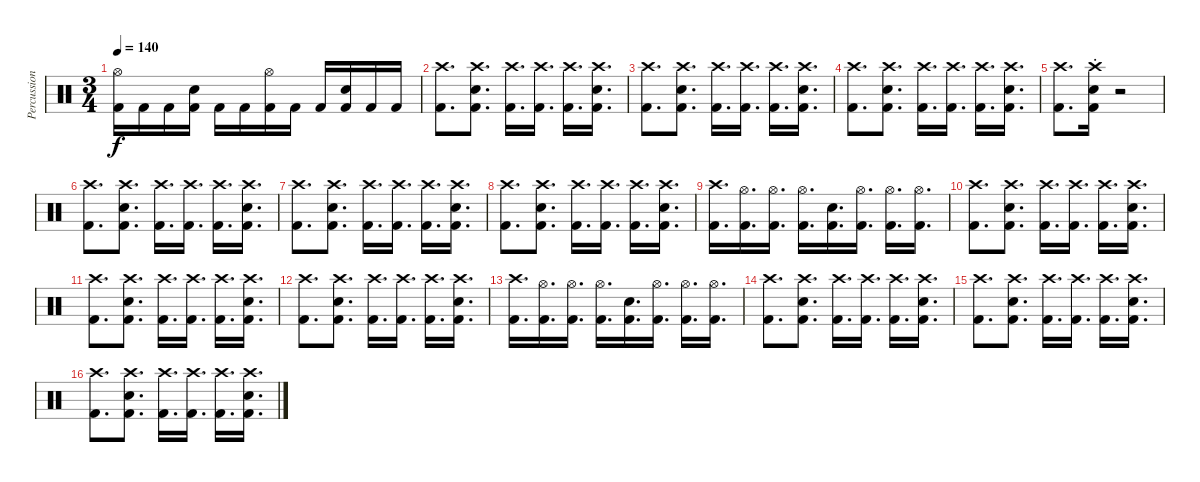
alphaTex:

\track ("Percussion" "Percussion") {instrument percussion}
\staff {score}
\articulation defaults
\ts (3 4)
\tempo 140
\clef neutral
\ks c
("Hi-Hat (open)" "Kick (hit) 2").16{dy f} "Kick (hit) 2".16 "Kick (hit) 2".16 ("Electric Snare (hit)" "Kick (hit) 2").16 "Kick (hit) 2".16 "Kick (hit) 2".16 ("Hi-Hat (open)" "Kick (hit) 2").16 "Kick (hit) 2".16 "Kick (hit) 2".16 ("Electric Snare (hit)" "Kick (hit) 2").16 "Kick (hit) 2".16 "Kick (hit) 2".16 |
("Crash high (hit)" "Kick (hit) 2").8{d} ("Crash high (hit)" "Electric Snare (hit)" "Kick (hit) 2").8{d} ("Crash high (hit)" "Kick (hit) 2").16{d} ("Crash high (hit)" "Kick (hit) 2").16{d} ("Crash high (hit)" "Kick (hit) 2").16{d} ("Crash high (hit)" "Electric Snare (hit)" "Kick (hit) 2").16{d} |
("Crash high (hit)" "Kick (hit) 2").8{d} ("Crash high (hit)" "Electric Snare (hit)" "Kick (hit) 2").8{d} ("Crash high (hit)" "Kick (hit) 2").16{d} ("Crash high (hit)" "Kick (hit) 2").16{d} ("Crash high (hit)" "Kick (hit) 2").16{d} ("Crash high (hit)" "Electric Snare (hit)" "Kick (hit) 2").16{d} |
("Crash high (hit)" "Kick (hit) 2").8{d} ("Crash high (hit)" "Electric Snare (hit)" "Kick (hit) 2").8{d} ("Crash high (hit)" "Kick (hit) 2").16{d} ("Crash high (hit)" "Kick (hit) 2").16{d} ("Crash high (hit)" "Kick (hit) 2").16{d} ("Crash high (hit)" "Electric Snare (hit)" "Kick (hit) 2").16{d} |
("Crash high (hit)" "Kick (hit) 2").8{d} ("Crash high (hit)"{st} "Electric Snare (hit)"{st} "Kick (hit) 2"{st}).16 r.2 |
("Crash high (hit)" "Kick (hit) 2").8{d} ("Crash high (hit)" "Electric Snare (hit)" "Kick (hit) 2").8{d} ("Crash high (hit)" "Kick (hit) 2").16{d} ("Crash high (hit)" "Kick (hit) 2").16{d} ("Crash high (hit)" "Kick (hit) 2").16{d} ("Crash high (hit)" "Electric Snare (hit)" "Kick (hit) 2").16{d} |
("Crash high (hit)" "Kick (hit) 2").8{d} ("Crash high (hit)" "Electric Snare (hit)" "Kick (hit) 2").8{d} ("Crash high (hit)" "Kick (hit) 2").16{d} ("Crash high (hit)" "Kick (hit) 2").16{d} ("Crash high (hit)" "Kick (hit) 2").16{d} ("Crash high (hit)" "Electric Snare (hit)" "Kick (hit) 2").16{d} |
("Crash high (hit)" "Kick (hit) 2").8{d} ("Crash high (hit)" "Electric Snare (hit)" "Kick (hit) 2").8{d} ("Crash high (hit)" "Kick (hit) 2").16{d} ("Crash high (hit)" "Kick (hit) 2").16{d} ("Crash high (hit)" "Kick (hit) 2").16{d} ("Crash high (hit)" "Electric Snare (hit)" "Kick (hit) 2").16{d} |
("Crash high (hit)" "Kick (hit) 2").16{d} ("Hi-Hat (open)" "Kick (hit) 2").16{d} ("Hi-Hat (open)" "Kick (hit) 2").16{d} ("Hi-Hat (open)" "Kick (hit) 2").16{d} ("Electric Snare (hit)" "Kick (hit) 2").16{d} ("Hi-Hat (open)" "Kick (hit) 2").16{d} ("Hi-Hat (open)" "Kick (hit) 2").16{d} ("Hi-Hat (open)" "Kick (hit) 2").16{d} |
("Crash high (hit)" "Kick (hit) 2").8{d} ("Crash high (hit)" "Electric Snare (hit)" "Kick (hit) 2").8{d} ("Crash high (hit)" "Kick (hit) 2").16{d} ("Crash high (hit)" "Kick (hit) 2").16{d} ("Crash high (hit)" "Kick (hit) 2").16{d} ("Crash high (hit)" "Electric Snare (hit)" "Kick (hit) 2").16{d} |
("Crash high (hit)" "Kick (hit) 2").8{d} ("Crash high (hit)" "Electric Snare (hit)" "Kick (hit) 2").8{d} ("Crash high (hit)" "Kick (hit) 2").16{d} ("Crash high (hit)" "Kick (hit) 2").16{d} ("Crash high (hit)" "Kick (hit) 2").16{d} ("Crash high (hit)" "Electric Snare (hit)" "Kick (hit) 2").16{d} |
("Crash high (hit)" "Kick (hit) 2").8{d} ("Crash high (hit)" "Electric Snare (hit)" "Kick (hit) 2").8{d} ("Crash high (hit)" "Kick (hit) 2").16{d} ("Crash high (hit)" "Kick (hit) 2").16{d} ("Crash high (hit)" "Kick (hit) 2").16{d} ("Crash high (hit)" "Electric Snare (hit)" "Kick (hit) 2").16{d} |
("Crash high (hit)" "Kick (hit) 2").16{d} ("Hi-Hat (open)" "Kick (hit) 2").16{d} ("Hi-Hat (open)" "Kick (hit) 2").16{d} ("Hi-Hat (open)" "Kick (hit) 2").16{d} ("Electric Snare (hit)" "Kick (hit) 2").16{d} ("Hi-Hat (open)" "Kick (hit) 2").16{d} ("Hi-Hat (open)" "Kick (hit) 2").16{d} ("Hi-Hat (open)" "Kick (hit) 2").16{d} |
("Crash high (hit)" "Kick (hit) 2").8{d} ("Crash high (hit)" "Electric Snare (hit)" "Kick (hit) 2").8{d} ("Crash high (hit)" "Kick (hit) 2").16{d} ("Crash high (hit)" "Kick (hit) 2").16{d} ("Crash high (hit)" "Kick (hit) 2").16{d} ("Crash high (hit)" "Electric Snare (hit)" "Kick (hit) 2").16{d} |
("Crash high (hit)" "Kick (hit) 2").8{d} ("Crash high (hit)" "Electric Snare (hit)" "Kick (hit) 2").8{d} ("Crash high (hit)" "Kick (hit) 2").16{d} ("Crash high (hit)" "Kick (hit) 2").16{d} ("Crash high (hit)" "Kick (hit) 2").16{d} ("Crash high (hit)" "Electric Snare (hit)" "Kick (hit) 2").16{d} |
("Crash high (hit)" "Kick (hit) 2").8{d} ("Crash high (hit)" "Electric Snare (hit)" "Kick (hit) 2").8{d} ("Crash high (hit)" "Kick (hit) 2").16{d} ("Crash high (hit)" "Kick (hit) 2").16{d} ("Crash high (hit)" "Kick (hit) 2").16{d} ("Crash high (hit)" "Electric Snare (hit)" "Kick (hit) 2").16{d}
